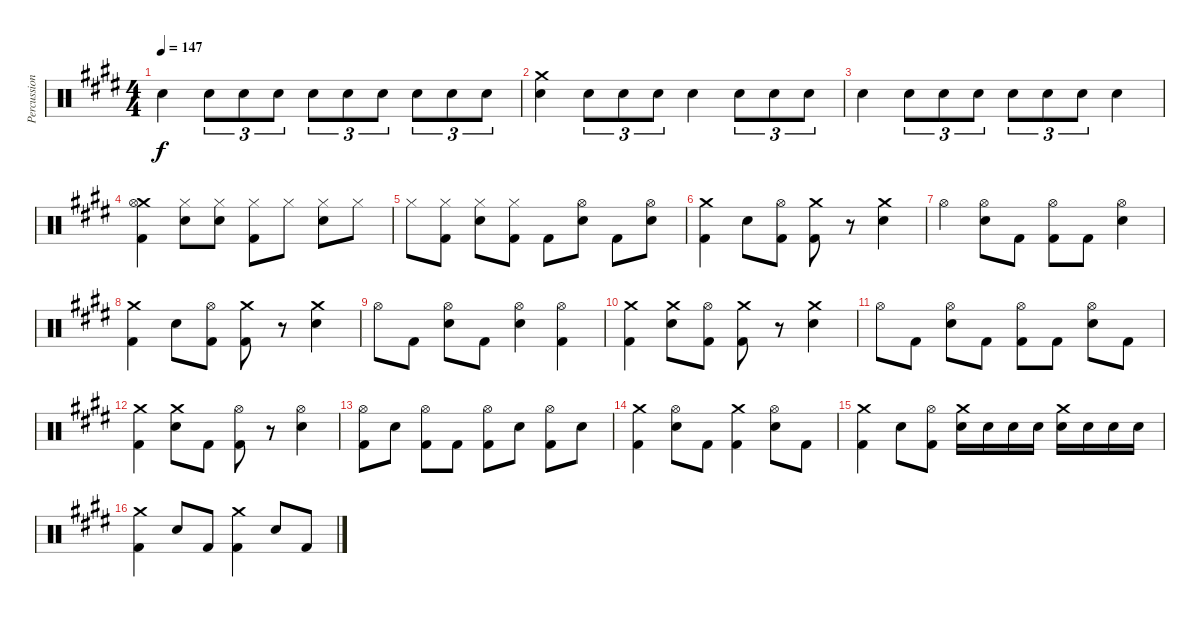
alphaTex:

\track ("Percussion" "Percussion") {instrument percussion}
\staff {score}
\articulation defaults
\ts (4 4)
\tempo 147
\clef neutral
\ks e "Electric Snare (hit)".4{dy f} "Electric Snare (hit)".8{tu (3 2)} "Electric Snare (hit)".8{tu (3 2)} "Electric Snare (hit)".8{tu (3 2)} "Electric Snare (hit)".8{tu (3 2)} "Electric Snare (hit)".8{tu (3 2)} "Electric Snare (hit)".8{tu (3 2)} "Electric Snare (hit)".8{tu (3 2)} "Electric Snare (hit)".8{tu (3 2)} "Electric Snare (hit)".8{tu (3 2)}
|
("Crash medium (hit)" "Electric Snare (hit)").4 "Electric Snare (hit)".8{tu (3 2)} "Electric Snare (hit)".8{tu (3 2)} "Electric Snare (hit)".8{tu (3 2)} "Electric Snare (hit)".4 "Electric Snare (hit)".8{tu (3 2)} "Electric Snare (hit)".8{tu (3 2)} "Electric Snare (hit)".8{tu (3 2)} |
"Electric Snare (hit)".4 "Electric Snare (hit)".8{tu (3 2)} "Electric Snare (hit)".8{tu (3 2)} "Electric Snare (hit)".8{tu (3 2)} "Electric Snare (hit)".8{tu (3 2)} "Electric Snare (hit)".8{tu (3 2)} "Electric Snare (hit)".8{tu (3 2)} "Electric Snare (hit)".4 |
("Crash medium (hit)" "Hi-Hat (open)" "Kick (hit) 2").4 ("Hi-Hat (closed)" "Electric Snare (hit)").8 ("Hi-Hat (closed)" "Electric Snare (hit)").8 ("Hi-Hat (closed)" "Kick (hit) 2").8 "Hi-Hat (closed)".8 ("Hi-Hat (closed)" "Electric Snare (hit)").8 "Hi-Hat (closed)".8 |
"Hi-Hat (closed)".8 ("Hi-Hat (closed)" "Kick (hit) 2").8 ("Hi-Hat (closed)" "Electric Snare (hit)").8 ("Hi-Hat (closed)" "Kick (hit) 2").8 "Kick (hit) 2".8 ("Hi-Hat (open)" "Electric Snare (hit)").8 "Kick (hit) 2".8 ("Hi-Hat (open)" "Electric Snare (hit)").8 |
("Crash medium (hit)" "Kick (hit) 2").4 "Electric Snare (hit)".8 ("Hi-Hat (open)" "Kick (hit) 2").8 ("Crash medium (hit)" "Kick (hit) 2").8 r.8 ("Crash medium (hit)" "Electric Snare (hit)").4 |
"Hi-Hat (open)".4 ("Hi-Hat (open)" "Electric Snare (hit)").8 "Kick (hit) 2".8 ("Hi-Hat (open)" "Kick (hit) 2").8 "Kick (hit) 2".8 ("Hi-Hat (open)" "Electric Snare (hit)").4 |
("Crash medium (hit)" "Kick (hit) 2").4 "Electric Snare (hit)".8 ("Hi-Hat (open)" "Kick (hit) 2").8 ("Crash medium (hit)" "Kick (hit) 2").8 r.8 ("Crash medium (hit)" "Electric Snare (hit)").4 |
"Hi-Hat (open)".8 "Kick (hit) 2".8 ("Hi-Hat (open)" "Electric Snare (hit)").8 "Kick (hit) 2".8 ("Hi-Hat (open)" "Electric Snare (hit)").4 ("Hi-Hat (open)" "Kick (hit) 2").4 |
("Crash medium (hit)" "Kick (hit) 2").4 ("Crash medium (hit)" "Electric Snare (hit)").8 ("Hi-Hat (open)" "Kick (hit) 2").8 ("Crash medium (hit)" "Kick (hit) 2").8 r.8 ("Crash medium (hit)" "Electric Snare (hit)").4 |
"Hi-Hat (open)".8 "Kick (hit) 2".8 ("Hi-Hat (open)" "Electric Snare (hit)").8 "Kick (hit) 2".8 ("Hi-Hat (open)" "Kick (hit) 2").8 "Kick (hit) 2".8 ("Hi-Hat (open)" "Electric Snare (hit)").8 "Kick (hit) 2".8 |
("Crash medium (hit)" "Kick (hit) 2").4 ("Crash medium (hit)" "Electric Snare (hit)").8 "Kick (hit) 2".8 ("Hi-Hat (open)" "Kick (hit) 2").8 r.8 ("Hi-Hat (open)" "Electric Snare (hit)").4 |
("Hi-Hat (open)" "Kick (hit) 2").8 "Electric Snare (hit)".8 ("Hi-Hat (open)" "Kick (hit) 2").8 "Kick (hit) 2".8 ("Hi-Hat (open)" "Kick (hit) 2").8 "Electric Snare (hit)".8 ("Hi-Hat (open)" "Kick (hit) 2").8 "Electric Snare (hit)".8 |
("Crash medium (hit)" "Kick (hit) 2").4 ("Hi-Hat (open)" "Electric Snare (hit)").8 "Kick (hit) 2".8 ("Crash medium (hit)" "Kick (hit) 2").4 ("Hi-Hat (open)" "Electric Snare (hit)").8 "Kick (hit) 2".8 |
("Crash medium (hit)" "Kick (hit) 2").4 "Electric Snare (hit)".8 ("Hi-Hat (open)" "Kick (hit) 2").8 ("Crash medium (hit)" "Electric Snare (hit)").16 "Electric Snare (hit)".16 "Electric Snare (hit)".16 "Electric Snare (hit)".16 ("Crash medium (hit)" "Electric Snare (hit)").16 "Electric Snare (hit)".16 "Electric Snare (hit)".16 "Electric Snare (hit)".16 |
("Crash medium (hit)" "Kick (hit) 2").4 "Electric Snare (hit)".8 "Kick (hit) 2".8 ("Crash medium (hit)" "Kick (hit) 2").4 "Electric Snare (hit)".8 "Kick (hit) 2".8
